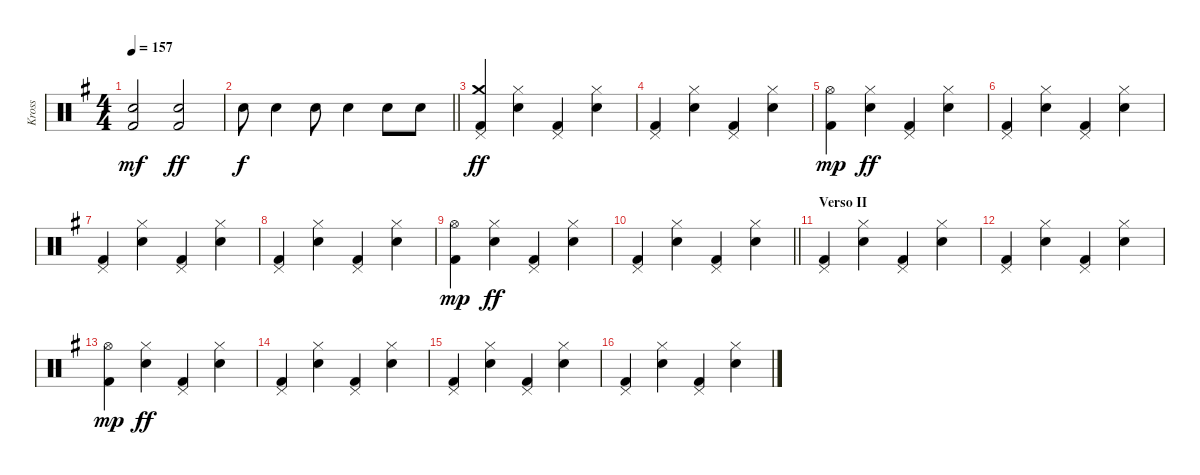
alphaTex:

\track ("Kross" "Kross") {instrument percussion}
\staff {score}
\articulation defaults
\ts (4 4)
\tempo 157
\clef neutral
\ks g
("Electric Snare (hit)" "Kick (hit) 2").2{dy mf} ("Electric Snare (hit)" "Kick (hit) 2").2{dy ff} |
\barLineRight lightlight "Electric Snare (hit)".8{dy f} "Snare (hit) 2".4 "Snare (hit) 2".8 "Electric Snare (hit)".4 "Electric Snare (hit)".8 "Electric Snare (hit)".8
|
("Crash medium (hit)" "Pedal Hi-Hat (hit)" "Kick (hit) 2").4{dy ff} ("Hi-Hat (closed)" "Snare (hit) 2").4 ("Pedal Hi-Hat (hit)" "Kick (hit) 2").4 ("Hi-Hat (closed)" "Snare (hit) 2").4 |
("Pedal Hi-Hat (hit)" "Kick (hit) 2").4 ("Hi-Hat (closed)" "Snare (hit) 2").4 ("Pedal Hi-Hat (hit)" "Kick (hit) 2").4 ("Hi-Hat (closed)" "Snare (hit) 2").4 |
("Hi-Hat (open)" "Kick (hit) 2").4{dy mp} ("Hi-Hat (closed)" "Snare (hit) 2").4{dy ff} ("Pedal Hi-Hat (hit)" "Kick (hit) 2").4 ("Hi-Hat (closed)" "Snare (hit) 2").4 |
("Pedal Hi-Hat (hit)" "Kick (hit) 2").4 ("Hi-Hat (closed)" "Snare (hit) 2").4 ("Pedal Hi-Hat (hit)" "Kick (hit) 2").4 ("Hi-Hat (closed)" "Snare (hit) 2").4 |
("Pedal Hi-Hat (hit)" "Kick (hit) 2").4 ("Hi-Hat (closed)" "Snare (hit) 2").4 ("Pedal Hi-Hat (hit)" "Kick (hit) 2").4 ("Hi-Hat (closed)" "Snare (hit) 2").4 |
("Pedal Hi-Hat (hit)" "Kick (hit) 2").4 ("Hi-Hat (closed)" "Snare (hit) 2").4 ("Pedal Hi-Hat (hit)" "Kick (hit) 2").4 ("Hi-Hat (closed)" "Snare (hit) 2").4 |
("Hi-Hat (open)" "Kick (hit) 2").4{dy mp} ("Hi-Hat (closed)" "Snare (hit) 2").4{dy ff} ("Pedal Hi-Hat (hit)" "Kick (hit) 2").4 ("Hi-Hat (closed)" "Snare (hit) 2").4 |
\barLineRight lightlight
("Pedal Hi-Hat (hit)" "Kick (hit) 2").4 ("Hi-Hat (closed)" "Snare (hit) 2").4 ("Pedal Hi-Hat (hit)" "Kick (hit) 2").4 ("Hi-Hat (closed)" "Snare (hit) 2").4 |
\section ("" "Verso II")
("Pedal Hi-Hat (hit)" "Kick (hit) 2").4 ("Hi-Hat (closed)" "Snare (hit) 2").4 ("Pedal Hi-Hat (hit)" "Kick (hit) 2").4 ("Hi-Hat (closed)" "Snare (hit) 2").4 |
("Pedal Hi-Hat (hit)" "Kick (hit) 2").4 ("Hi-Hat (closed)" "Snare (hit) 2").4 ("Pedal Hi-Hat (hit)" "Kick (hit) 2").4 ("Hi-Hat (closed)" "Snare (hit) 2").4 |
("Hi-Hat (open)" "Kick (hit) 2").4{dy mp} ("Hi-Hat (closed)" "Snare (hit) 2").4{dy ff} ("Pedal Hi-Hat (hit)" "Kick (hit) 2").4 ("Hi-Hat (closed)" "Snare (hit) 2").4 |
("Pedal Hi-Hat (hit)" "Kick (hit) 2").4 ("Hi-Hat (closed)" "Snare (hit) 2").4 ("Pedal Hi-Hat (hit)" "Kick (hit) 2").4 ("Hi-Hat (closed)" "Snare (hit) 2").4 |
("Pedal Hi-Hat (hit)" "Kick (hit) 2").4 ("Hi-Hat (closed)" "Snare (hit) 2").4 ("Pedal Hi-Hat (hit)" "Kick (hit) 2").4 ("Hi-Hat (closed)" "Snare (hit) 2").4 |
("Pedal Hi-Hat (hit)" "Kick (hit) 2").4 ("Hi-Hat (closed)" "Snare (hit) 2").4 ("Pedal Hi-Hat (hit)" "Kick (hit) 2").4 ("Hi-Hat (closed)" "Snare (hit) 2").4
